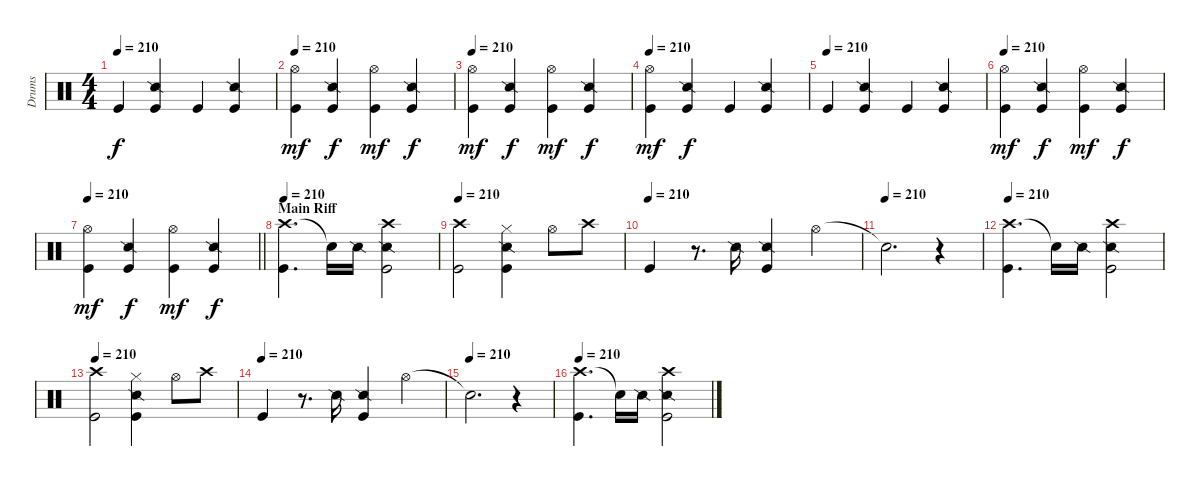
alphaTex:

\track ("Drums" "Drums") {instrument percussion}
\staff {score}
\articulation defaults
\ts (4 4)
\tempo 210
\clef neutral
\ks c "Kick (hit)".4{dy f}
("Snare (side stick) 2" "Kick (hit)").4 "Kick (hit)".4 ("Snare (side stick) 2" "Kick (hit)").4 |
\tempo 210
("Hi-Hat (open)" "Kick (hit)").4{dy mf} ("Snare (side stick) 2" "Kick (hit)").4{dy f} ("Hi-Hat (open)" "Kick (hit)").4{dy mf} ("Snare (side stick) 2" "Kick (hit)").4{dy f} |
\tempo 210
("Hi-Hat (open)" "Kick (hit)").4{dy mf} ("Snare (side stick) 2" "Kick (hit)").4{dy f} ("Hi-Hat (open)" "Kick (hit)").4{dy mf} ("Snare (side stick) 2" "Kick (hit)").4{dy f} |
\tempo 210
("Hi-Hat (open)" "Kick (hit)").4{dy mf} ("Snare (side stick) 2" "Kick (hit)").4{dy f} "Kick (hit)".4 ("Snare (side stick) 2" "Kick (hit)").4 |
\tempo (210)
"Kick (hit)".4 ("Snare (side stick) 2" "Kick (hit)").4 "Kick (hit)".4 ("Snare (side stick) 2" "Kick (hit)").4 |
\tempo 210
("Hi-Hat (open)" "Kick (hit)").4{dy mf} ("Snare (side stick) 2" "Kick (hit)").4{dy f} ("Hi-Hat (open)" "Kick (hit)").4{dy mf} ("Snare (side stick) 2" "Kick (hit)").4{dy f} |
\tempo 210
\barLineRight lightlight
("Hi-Hat (open)" "Kick (hit)").4{dy mf} ("Snare (side stick) 2" "Kick (hit)").4{dy f} ("Hi-Hat (open)" "Kick (hit)").4{dy mf} ("Snare (side stick) 2" "Kick (hit)").4{dy f} |
\section ("" "Main Riff")
\tempo 210
("Crash high (hit)" "Kick (hit)").4{d} "Snare (hit)"{t}.16 "Snare (side stick) 2".16 ("Crash high (hit)" "Snare (side stick) 2" "Kick (hit)").2 |
\tempo 210
("Crash high (hit)" "Kick (hit)").2 ("Hi-Hat (closed)" "Snare (side stick) 2" "Kick (hit)").4 "Hi-Hat (open)".8 "Crash high (hit)".8 |
\tempo (210)
"Kick (hit)".4 r.8{d} "Snare (side stick) 2".16 ("Snare (side stick) 2" "Kick (hit)").4 "Hi-Hat (open)".4 |
\tempo (210)
"Snare (hit)"{t}.2{d} r.4 |
\tempo 210
("Crash high (hit)" "Kick (hit)").4{d} "Snare (hit)"{t}.16 "Snare (side stick) 2".16 ("Crash high (hit)" "Snare (side stick) 2" "Kick (hit)").2 |
\tempo 210
("Crash high (hit)" "Kick (hit)").2 ("Hi-Hat (closed)" "Snare (side stick) 2" "Kick (hit)").4 "Hi-Hat (open)".8 "Crash high (hit)".8 |
\tempo (210)
"Kick (hit)".4 r.8{d} "Snare (side stick) 2".16 ("Snare (side stick) 2" "Kick (hit)").4 "Hi-Hat (open)".4 |
\tempo (210)
"Snare (hit)"{t}.2{d} r.4 |
\tempo 210
("Crash high (hit)" "Kick (hit)").4{d} "Snare (hit)"{t}.16 "Snare (side stick) 2".16 ("Crash high (hit)" "Snare (side stick) 2" "Kick (hit)").2
